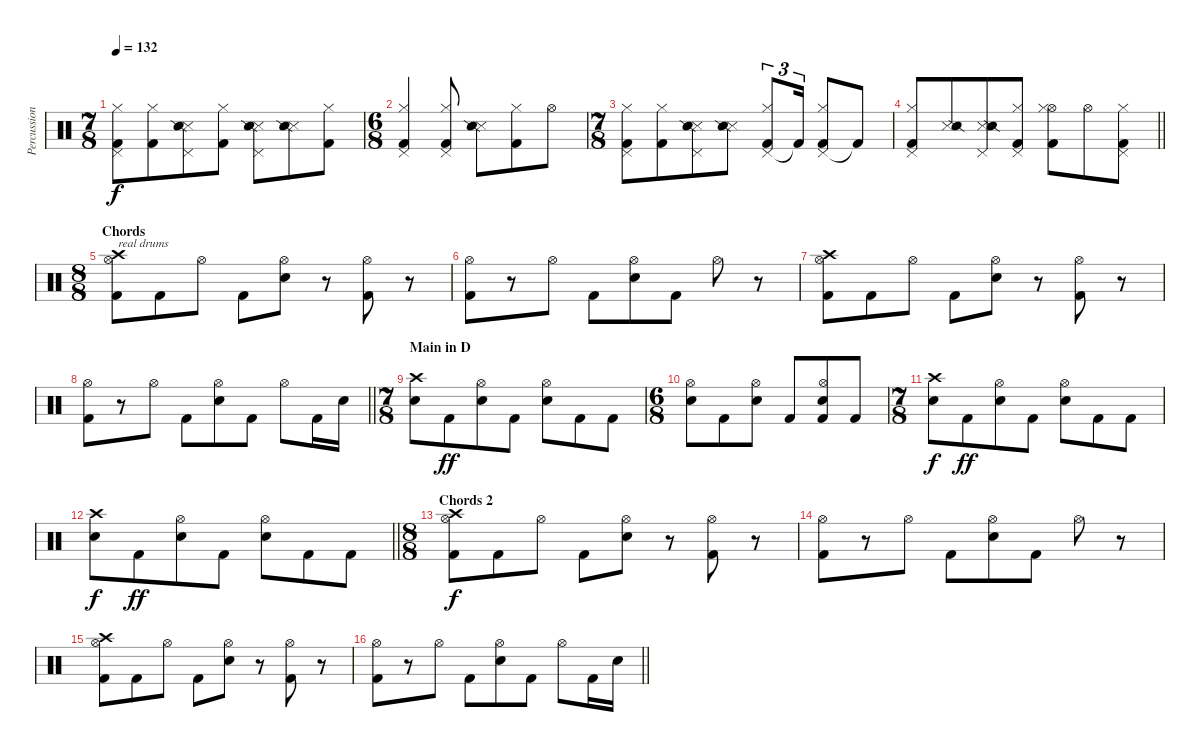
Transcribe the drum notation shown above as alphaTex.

\track ("Percussion" "Percussion") {instrument percussion}
\staff {score}
\articulation defaults
\ts (7 8)
\tempo 132
\clef neutral
\ks c
("Pedal Hi-Hat (hit)" "Hi-Hat (closed)" "Kick (hit) 2").8{dy f} ("Hi-Hat (closed)" "Kick (hit) 2").8 ("Pedal Hi-Hat (hit)" "Metronome (hit)" "Snare (side stick) 2").8 ("Hi-Hat (closed)" "Kick (hit) 2").8 ("Pedal Hi-Hat (hit)" "Metronome (hit)" "Snare (side stick) 2").8 ("Metronome (hit)" "Snare (side stick) 2").8 ("Hi-Hat (closed)" "Kick (hit) 2").8 |
\ts (6 8)
("Pedal Hi-Hat (hit)" "Hi-Hat (closed)" "Kick (hit) 2").4 ("Pedal Hi-Hat (hit)" "Hi-Hat (closed)" "Kick (hit) 2").8 ("Metronome (hit)" "Snare (side stick) 2").8 ("Hi-Hat (closed)" "Kick (hit) 2").8 "Hi-Hat (open)".8 |
\ts (7 8)
("Pedal Hi-Hat (hit)" "Hi-Hat (closed)" "Kick (hit) 2").8 ("Hi-Hat (closed)" "Kick (hit) 2").8 ("Pedal Hi-Hat (hit)" "Metronome (hit)" "Snare (side stick) 2").8 ("Metronome (hit)" "Snare (side stick) 2").8 ("Pedal Hi-Hat (hit)" "Hi-Hat (closed)" "Kick (hit) 2").8{tu (3 2)} "Kick (hit) 2"{t}.16{tu (3 2)} ("Pedal Hi-Hat (hit)" "Hi-Hat (closed)" "Kick (hit) 2").8 "Kick (hit) 2"{t}.8 |
\barLineRight lightlight
("Pedal Hi-Hat (hit)" "Hi-Hat (closed)" "Kick (hit) 2").8 ("Metronome (hit)" "Snare (side stick) 2").8 ("Pedal Hi-Hat (hit)" "Metronome (hit)" "Snare (side stick) 2").8 ("Pedal Hi-Hat (hit)" "Hi-Hat (closed)" "Kick (hit) 2").8 ("Hi-Hat (open)" "Hi-Hat (closed)" "Kick (hit) 2").8 "Hi-Hat (open)".8 ("Pedal Hi-Hat (hit)" "Hi-Hat (closed)" "Kick (hit) 2").8 |
\ts (8 8)
\section ("" "Chords")
("Hi-Hat (open)" "Crash high (hit)" "Kick (hit) 2").8{txt "real drums"} "Kick (hit) 2".8 "Hi-Hat (open)".8 "Kick (hit) 2".8 ("Hi-Hat (open)" "Electric Snare (hit)").8 r.8 ("Hi-Hat (open)" "Kick (hit) 2").8 r.8 |
("Hi-Hat (open)" "Kick (hit) 2").8 r.8 "Hi-Hat (open)".8 "Kick (hit) 2".8 ("Hi-Hat (open)" "Electric Snare (hit)").8 "Kick (hit) 2".8 "Hi-Hat (open)".8 r.8 |
("Hi-Hat (open)" "Crash high (hit)" "Kick (hit) 2").8 "Kick (hit) 2".8 "Hi-Hat (open)".8 "Kick (hit) 2".8 ("Hi-Hat (open)" "Electric Snare (hit)").8 r.8 ("Hi-Hat (open)" "Kick (hit) 2").8 r.8 |
\barLineRight lightlight
("Hi-Hat (open)" "Kick (hit) 2").8 r.8 "Hi-Hat (open)".8 "Kick (hit) 2".8 ("Hi-Hat (open)" "Electric Snare (hit)").8 "Kick (hit) 2".8 "Hi-Hat (open)".8 "Kick (hit) 2".16 "Electric Snare (hit)".16 |
\ts (7 8)
\section ("" "Main in D")
("Crash high (hit)" "Electric Snare (hit)").8 "Kick (hit) 2".8{dy ff} ("Hi-Hat (open)" "Electric Snare (hit)").8 "Kick (hit) 2".8 ("Hi-Hat (open)" "Electric Snare (hit)").8 "Kick (hit) 2".8 "Kick (hit) 2".8 |
\ts (6 8)
("Hi-Hat (open)" "Electric Snare (hit)").8 "Kick (hit) 2".8 ("Hi-Hat (open)" "Electric Snare (hit)").8 "Kick (hit) 2".8 ("Hi-Hat (open)" "Electric Snare (hit)" "Kick (hit) 2").8 "Kick (hit) 2".8 |
\ts (7 8)
("Crash high (hit)" "Electric Snare (hit)").8{dy f} "Kick (hit) 2".8{dy ff} ("Hi-Hat (open)" "Electric Snare (hit)").8 "Kick (hit) 2".8 ("Hi-Hat (open)" "Electric Snare (hit)").8 "Kick (hit) 2".8 "Kick (hit) 2".8 |
\barLineRight lightlight
("Crash high (hit)" "Electric Snare (hit)").8{dy f} "Kick (hit) 2".8{dy ff} ("Hi-Hat (open)" "Electric Snare (hit)").8 "Kick (hit) 2".8 ("Hi-Hat (open)" "Electric Snare (hit)").8 "Kick (hit) 2".8 "Kick (hit) 2".8 |
\ts (8 8)
\section ("" "Chords 2")
("Hi-Hat (open)" "Crash high (hit)" "Kick (hit) 2").8{dy f} "Kick (hit) 2".8 "Hi-Hat (open)".8 "Kick (hit) 2".8 ("Hi-Hat (open)" "Electric Snare (hit)").8 r.8 ("Hi-Hat (open)" "Kick (hit) 2").8 r.8 |
("Hi-Hat (open)" "Kick (hit) 2").8 r.8 "Hi-Hat (open)".8 "Kick (hit) 2".8 ("Hi-Hat (open)" "Electric Snare (hit)").8 "Kick (hit) 2".8 "Hi-Hat (open)".8 r.8 |
("Hi-Hat (open)" "Crash high (hit)" "Kick (hit) 2").8 "Kick (hit) 2".8 "Hi-Hat (open)".8 "Kick (hit) 2".8 ("Hi-Hat (open)" "Electric Snare (hit)").8 r.8 ("Hi-Hat (open)" "Kick (hit) 2").8 r.8 |
\barLineRight lightlight
("Hi-Hat (open)" "Kick (hit) 2").8 r.8 "Hi-Hat (open)".8 "Kick (hit) 2".8 ("Hi-Hat (open)" "Electric Snare (hit)").8 "Kick (hit) 2".8 "Hi-Hat (open)".8 "Kick (hit) 2".16 "Electric Snare (hit)".16
